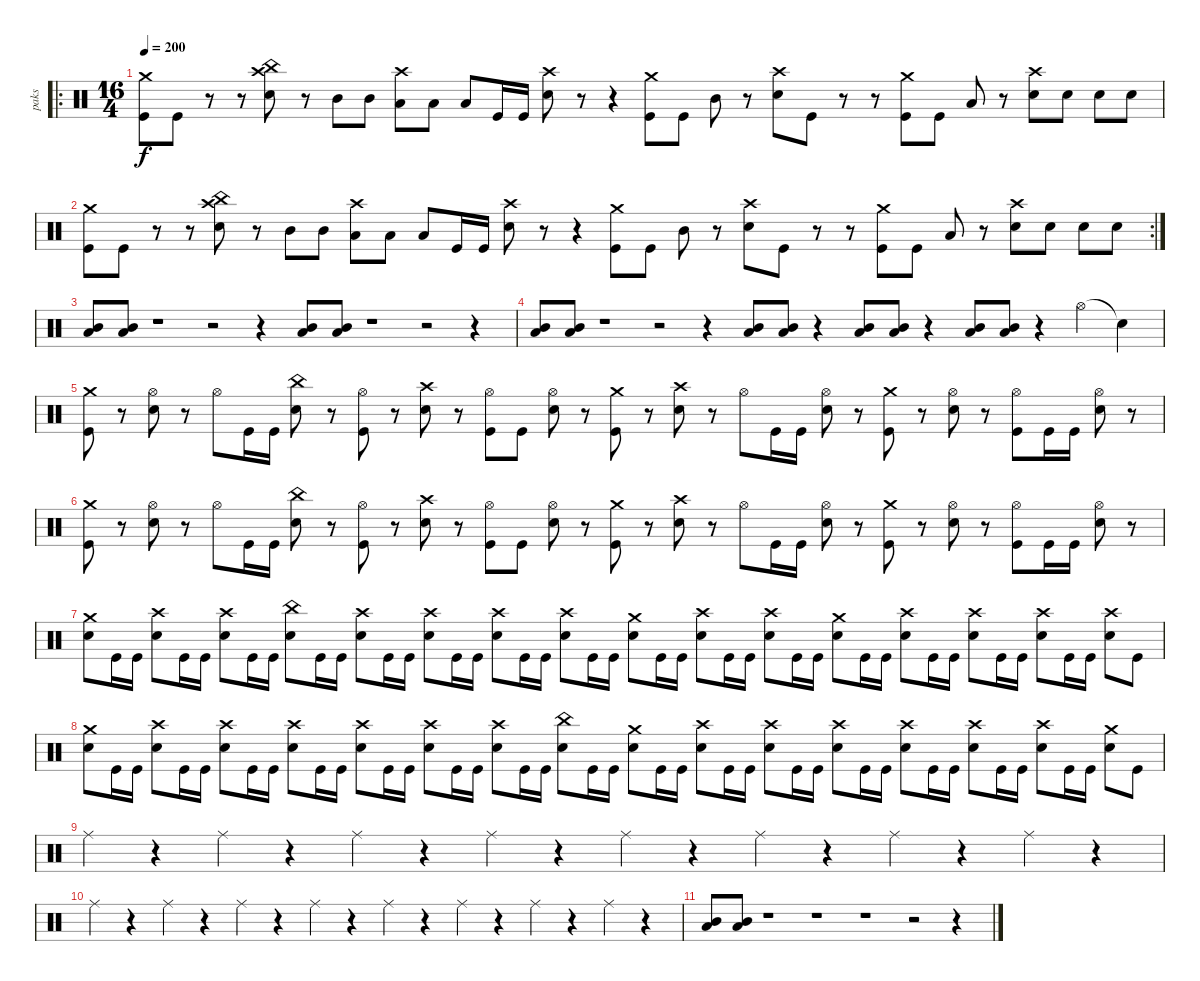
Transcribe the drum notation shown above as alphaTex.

\track ("paks" "paks") {instrument percussion}
\staff {score}
\articulation defaults
\ro
\ts (16 4)
\tempo 200
\clef neutral
\ks c
("Crash medium (hit)" "Kick (hit)").8{dy f} "Kick (hit)".8 r.8 r.8 ("China (hit)" "Crash high (hit)" "Electric Snare (hit)").8 r.8 "Mid Tom (hit)".8 "Mid Tom (hit)".8 ("Crash high (hit)" "Low Tom (hit)").8 "Low Tom (hit)".8 "Low Floor Tom (hit)".8 "Kick (hit)".16 "Kick (hit)".16 ("Crash high (hit)" "Electric Snare (hit)").8 r.8 r.4 ("Crash medium (hit)" "Kick (hit)").8 "Kick (hit)".8 "Mid Tom (hit)".8 r.8 ("Crash high (hit)" "Electric Snare (hit)").8 "Kick (hit)".8 r.8 r.8 ("Crash medium (hit)" "Kick (hit)").8 "Kick (hit)".8 "Low Floor Tom (hit)".8 r.8 ("Crash high (hit)" "Electric Snare (hit)").8 "Electric Snare (hit)".8 "Electric Snare (hit)".8 "Electric Snare (hit)".8 |
\rc 2
("Crash medium (hit)" "Kick (hit)").8 "Kick (hit)".8 r.8 r.8 ("China (hit)" "Crash high (hit)" "Electric Snare (hit)").8 r.8 "Mid Tom (hit)".8 "Mid Tom (hit)".8 ("Crash high (hit)" "Low Tom (hit)").8 "Low Tom (hit)".8 "Low Floor Tom (hit)".8 "Kick (hit)".16 "Kick (hit)".16 ("Crash high (hit)" "Electric Snare (hit)").8 r.8 r.4 ("Crash medium (hit)" "Kick (hit)").8 "Kick (hit)".8 "Mid Tom (hit)".8 r.8 ("Crash high (hit)" "Electric Snare (hit)").8 "Kick (hit)".8 r.8 r.8 ("Crash medium (hit)" "Kick (hit)").8 "Kick (hit)".8 "Low Floor Tom (hit)".8 r.8 ("Crash high (hit)" "Electric Snare (hit)").8 "Electric Snare (hit)".8 "Electric Snare (hit)".8 "Electric Snare (hit)".8 |
("Mid Tom (hit)" "Low Floor Tom (hit)").8 ("Mid Tom (hit)" "Low Floor Tom (hit)").8 r.1 r.2 r.4 ("Mid Tom (hit)" "Low Floor Tom (hit)").8 ("Mid Tom (hit)" "Low Floor Tom (hit)").8 r.1 r.2 r.4 |
("Mid Tom (hit)" "Low Floor Tom (hit)").8 ("Mid Tom (hit)" "Low Floor Tom (hit)").8 r.1 r.2 r.4 ("Mid Tom (hit)" "Low Floor Tom (hit)").8 ("Mid Tom (hit)" "Low Floor Tom (hit)").8 r.4 ("Low Floor Tom (hit)" "Mid Tom (hit)").8 ("Low Floor Tom (hit)" "Mid Tom (hit)").8 r.4 ("Mid Tom (hit)" "Low Floor Tom (hit)").8 ("Mid Tom (hit)" "Low Floor Tom (hit)").8 r.4 "Hi-Hat (open)".4 "Snare (hit)"{t}.4 |
("Crash medium (hit)" "Kick (hit)").8 r.8 ("Hi-Hat (open)" "Electric Snare (hit)").8 r.8 "Hi-Hat (open)".8 "Kick (hit)".16 "Kick (hit)".16 ("China (hit)" "Electric Snare (hit)").8 r.8 ("Hi-Hat (open)" "Kick (hit)").8 r.8 ("Crash high (hit)" "Electric Snare (hit)").8 r.8 ("Hi-Hat (open)" "Kick (hit)").8 "Kick (hit)".8 ("Hi-Hat (open)" "Electric Snare (hit)").8 r.8 ("Crash medium (hit)" "Kick (hit)").8 r.8 ("Crash high (hit)" "Electric Snare (hit)").8 r.8 "Hi-Hat (open)".8 "Kick (hit)".16 "Kick (hit)".16 ("Hi-Hat (open)" "Electric Snare (hit)").8 r.8 ("Crash medium (hit)" "Kick (hit)").8 r.8 ("Hi-Hat (open)" "Electric Snare (hit)").8 r.8 ("Hi-Hat (open)" "Kick (hit)").8 "Kick (hit)".16 "Kick (hit)".16 ("Hi-Hat (open)" "Electric Snare (hit)").8 r.8 |
("Crash medium (hit)" "Kick (hit)").8 r.8 ("Hi-Hat (open)" "Electric Snare (hit)").8 r.8 "Hi-Hat (open)".8 "Kick (hit)".16 "Kick (hit)".16 ("China (hit)" "Electric Snare (hit)").8 r.8 ("Hi-Hat (open)" "Kick (hit)").8 r.8 ("Crash high (hit)" "Electric Snare (hit)").8 r.8 ("Hi-Hat (open)" "Kick (hit)").8 "Kick (hit)".8 ("Hi-Hat (open)" "Electric Snare (hit)").8 r.8 ("Crash medium (hit)" "Kick (hit)").8 r.8 ("Crash high (hit)" "Electric Snare (hit)").8 r.8 "Hi-Hat (open)".8 "Kick (hit)".16 "Kick (hit)".16 ("Hi-Hat (open)" "Electric Snare (hit)").8 r.8 ("Crash medium (hit)" "Kick (hit)").8 r.8 ("Hi-Hat (open)" "Electric Snare (hit)").8 r.8 ("Hi-Hat (open)" "Kick (hit)").8 "Kick (hit)".16 "Kick (hit)".16 ("Hi-Hat (open)" "Electric Snare (hit)").8 r.8 |
("Crash medium (hit)" "Electric Snare (hit)").8 "Kick (hit)".16 "Kick (hit)".16 ("Crash high (hit)" "Electric Snare (hit)").8 "Kick (hit)".16 "Kick (hit)".16 ("Crash high (hit)" "Electric Snare (hit)").8 "Kick (hit)".16 "Kick (hit)".16 ("China (hit)" "Electric Snare (hit)").8 "Kick (hit)".16 "Kick (hit)".16 ("Crash high (hit)" "Electric Snare (hit)").8 "Kick (hit)".16 "Kick (hit)".16 ("Crash high (hit)" "Electric Snare (hit)").8 "Kick (hit)".16 "Kick (hit)".16 ("Crash high (hit)" "Electric Snare (hit)").8 "Kick (hit)".16 "Kick (hit)".16 ("Crash high (hit)" "Electric Snare (hit)").8 "Kick (hit)".16 "Kick (hit)".16 ("Crash medium (hit)" "Electric Snare (hit)").8 "Kick (hit)".16 "Kick (hit)".16 ("Crash high (hit)" "Electric Snare (hit)").8 "Kick (hit)".16 "Kick (hit)".16 ("Crash high (hit)" "Electric Snare (hit)").8 "Kick (hit)".16 "Kick (hit)".16 ("Crash medium (hit)" "Electric Snare (hit)").8 "Kick (hit)".16 "Kick (hit)".16 ("Crash high (hit)" "Electric Snare (hit)").8 "Kick (hit)".16 "Kick (hit)".16 ("Crash high (hit)" "Electric Snare (hit)").8 "Kick (hit)".16 "Kick (hit)".16 ("Crash high (hit)" "Electric Snare (hit)").8 "Kick (hit)".16 "Kick (hit)".16 ("Crash high (hit)" "Electric Snare (hit)").8 "Kick (hit)".8 |
("Crash medium (hit)" "Electric Snare (hit)").8 "Kick (hit)".16 "Kick (hit)".16 ("Crash high (hit)" "Electric Snare (hit)").8 "Kick (hit)".16 "Kick (hit)".16 ("Crash high (hit)" "Electric Snare (hit)").8 "Kick (hit)".16 "Kick (hit)".16 ("Crash high (hit)" "Electric Snare (hit)").8 "Kick (hit)".16 "Kick (hit)".16 ("Crash high (hit)" "Electric Snare (hit)").8 "Kick (hit)".16 "Kick (hit)".16 ("Crash high (hit)" "Electric Snare (hit)").8 "Kick (hit)".16 "Kick (hit)".16 ("Crash high (hit)" "Electric Snare (hit)").8 "Kick (hit)".16 "Kick (hit)".16 ("China (hit)" "Electric Snare (hit)").8 "Kick (hit)".16 "Kick (hit)".16 ("Crash medium (hit)" "Electric Snare (hit)").8 "Kick (hit)".16 "Kick (hit)".16 ("Crash high (hit)" "Electric Snare (hit)").8 "Kick (hit)".16 "Kick (hit)".16 ("Crash high (hit)" "Electric Snare (hit)").8 "Kick (hit)".16 "Kick (hit)".16 ("Crash high (hit)" "Electric Snare (hit)").8 "Kick (hit)".16 "Kick (hit)".16 ("Crash high (hit)" "Electric Snare (hit)").8 "Kick (hit)".16 "Kick (hit)".16 ("Crash high (hit)" "Electric Snare (hit)").8 "Kick (hit)".16 "Kick (hit)".16 ("Crash high (hit)" "Electric Snare (hit)").8 "Kick (hit)".16 "Kick (hit)".16 ("Crash medium (hit)" "Electric Snare (hit)").8 "Kick (hit)".8 |
"Ride (middle)".4 r.4 "Ride (middle)".4 r.4 "Ride (middle)".4 r.4 "Ride (middle)".4 r.4 "Ride (middle)".4 r.4 "Ride (middle)".4 r.4 "Ride (middle)".4 r.4 "Ride (middle)".4 r.4 |
"Ride (middle)".4 r.4 "Ride (middle)".4 r.4 "Ride (middle)".4 r.4 "Ride (middle)".4 r.4 "Ride (middle)".4 r.4 "Ride (middle)".4 r.4 "Ride (middle)".4 r.4 "Ride (middle)".4 r.4 |
("Mid Tom (hit)" "Low Floor Tom (hit)").8 ("Mid Tom (hit)" "Low Floor Tom (hit)").8 r.1 r.1 r.1 r.2 r.4
